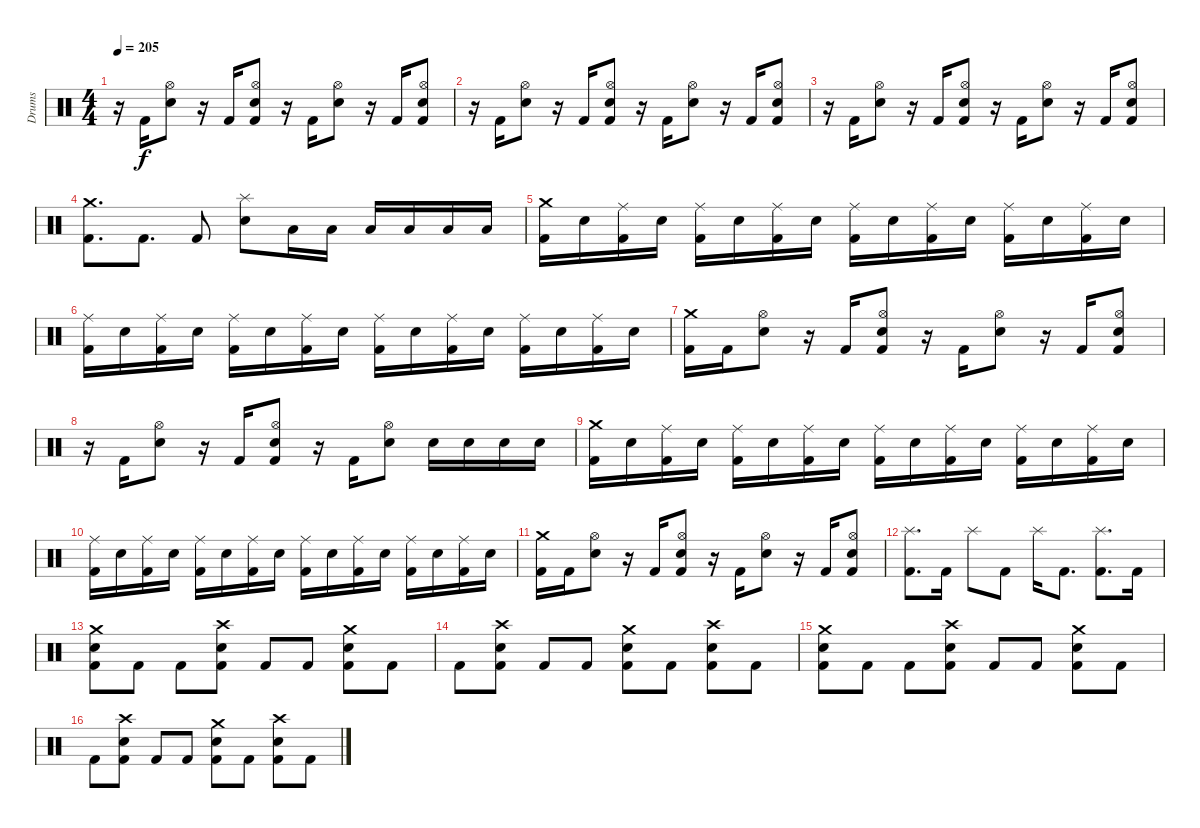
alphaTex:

\track ("Drums" "Drums") {instrument percussion}
\staff {score}
\articulation defaults
\ts (4 4)
\tempo 205
\clef neutral
\ks c
r.16{dy f} "Kick (hit) 2".16 ("Hi-Hat (open)" "Electric Snare (hit)").8 r.16 "Kick (hit) 2".16 ("Hi-Hat (open)" "Electric Snare (hit)" "Kick (hit) 2").8 r.16 "Kick (hit) 2".16 ("Hi-Hat (open)" "Electric Snare (hit)").8 r.16 "Kick (hit) 2".16 ("Hi-Hat (open)" "Electric Snare (hit)" "Kick (hit) 2").8 |
r.16 "Kick (hit) 2".16 ("Hi-Hat (open)" "Electric Snare (hit)").8 r.16 "Kick (hit) 2".16 ("Hi-Hat (open)" "Electric Snare (hit)" "Kick (hit) 2").8 r.16 "Kick (hit) 2".16 ("Hi-Hat (open)" "Electric Snare (hit)").8 r.16 "Kick (hit) 2".16 ("Hi-Hat (open)" "Electric Snare (hit)" "Kick (hit) 2").8 |
r.16 "Kick (hit) 2".16 ("Hi-Hat (open)" "Electric Snare (hit)").8 r.16 "Kick (hit) 2".16 ("Hi-Hat (open)" "Electric Snare (hit)" "Kick (hit) 2").8 r.16 "Kick (hit) 2".16 ("Hi-Hat (open)" "Electric Snare (hit)").8 r.16 "Kick (hit) 2".16 ("Hi-Hat (open)" "Electric Snare (hit)" "Kick (hit) 2").8 |
("Crash medium (hit)" "Kick (hit) 2").8{d} "Kick (hit) 2".8{d} "Kick (hit) 2".8 ("Splash (hit)" "Electric Snare (hit)").8 "Low Tom (hit)".16 "Low Tom (hit)".16 "Low Floor Tom (hit)".16 "Low Floor Tom (hit)".16 "Low Floor Tom (hit)".16 "Low Floor Tom (hit)".16 |
("Crash medium (hit)" "Kick (hit) 2").16 "Electric Snare (hit)".16 ("Ride (middle)" "Kick (hit) 2").16 "Electric Snare (hit)".16 ("Ride (middle)" "Kick (hit) 2").16 "Electric Snare (hit)".16 ("Ride (middle)" "Kick (hit) 2").16 "Electric Snare (hit)".16 ("Ride (middle)" "Kick (hit) 2").16 "Electric Snare (hit)".16 ("Ride (middle)" "Kick (hit) 2").16 "Electric Snare (hit)".16 ("Ride (middle)" "Kick (hit) 2").16 "Electric Snare (hit)".16 ("Ride (middle)" "Kick (hit) 2").16 "Electric Snare (hit)".16 |
("Ride (middle)" "Kick (hit) 2").16 "Electric Snare (hit)".16 ("Ride (middle)" "Kick (hit) 2").16 "Electric Snare (hit)".16 ("Ride (middle)" "Kick (hit) 2").16 "Electric Snare (hit)".16 ("Ride (middle)" "Kick (hit) 2").16 "Electric Snare (hit)".16 ("Ride (middle)" "Kick (hit) 2").16 "Electric Snare (hit)".16 ("Ride (middle)" "Kick (hit) 2").16 "Electric Snare (hit)".16 ("Ride (middle)" "Kick (hit) 2").16 "Electric Snare (hit)".16 ("Ride (middle)" "Kick (hit) 2").16 "Electric Snare (hit)".16 |
("Crash medium (hit)" "Kick (hit) 2").16 "Kick (hit) 2".16 ("Hi-Hat (open)" "Electric Snare (hit)").8 r.16 "Kick (hit) 2".16 ("Hi-Hat (open)" "Electric Snare (hit)" "Kick (hit) 2").8 r.16 "Kick (hit) 2".16 ("Hi-Hat (open)" "Electric Snare (hit)").8 r.16 "Kick (hit) 2".16 ("Hi-Hat (open)" "Electric Snare (hit)" "Kick (hit) 2").8 |
r.16 "Kick (hit) 2".16 ("Hi-Hat (open)" "Electric Snare (hit)").8 r.16 "Kick (hit) 2".16 ("Hi-Hat (open)" "Electric Snare (hit)" "Kick (hit) 2").8 r.16 "Kick (hit) 2".16 ("Hi-Hat (open)" "Electric Snare (hit)").8 "Electric Snare (hit)".16 "Electric Snare (hit)".16 "Electric Snare (hit)".16 "Electric Snare (hit)".16 |
("Crash medium (hit)" "Kick (hit) 2").16 "Electric Snare (hit)".16 ("Ride (middle)" "Kick (hit) 2").16 "Electric Snare (hit)".16 ("Ride (middle)" "Kick (hit) 2").16 "Electric Snare (hit)".16 ("Ride (middle)" "Kick (hit) 2").16 "Electric Snare (hit)".16 ("Ride (middle)" "Kick (hit) 2").16 "Electric Snare (hit)".16 ("Ride (middle)" "Kick (hit) 2").16 "Electric Snare (hit)".16 ("Ride (middle)" "Kick (hit) 2").16 "Electric Snare (hit)".16 ("Ride (middle)" "Kick (hit) 2").16 "Electric Snare (hit)".16 |
("Ride (middle)" "Kick (hit) 2").16 "Electric Snare (hit)".16 ("Ride (middle)" "Kick (hit) 2").16 "Electric Snare (hit)".16 ("Ride (middle)" "Kick (hit) 2").16 "Electric Snare (hit)".16 ("Ride (middle)" "Kick (hit) 2").16 "Electric Snare (hit)".16 ("Ride (middle)" "Kick (hit) 2").16 "Electric Snare (hit)".16 ("Ride (middle)" "Kick (hit) 2").16 "Electric Snare (hit)".16 ("Ride (middle)" "Kick (hit) 2").16 "Electric Snare (hit)".16 ("Ride (middle)" "Kick (hit) 2").16 "Electric Snare (hit)".16 |
("Crash medium (hit)" "Kick (hit) 2").16 "Kick (hit) 2".16 ("Hi-Hat (open)" "Electric Snare (hit)").8 r.16 "Kick (hit) 2".16 ("Hi-Hat (open)" "Electric Snare (hit)" "Kick (hit) 2").8 r.16 "Kick (hit) 2".16 ("Hi-Hat (open)" "Electric Snare (hit)").8 r.16 "Kick (hit) 2".16 ("Hi-Hat (open)" "Electric Snare (hit)" "Kick (hit) 2").8 |
("Splash (hit)" "Kick (hit) 2").8{d} "Kick (hit) 2".16 "Splash (hit)".8 "Kick (hit) 2".8 "Splash (hit)".16 "Kick (hit) 2".8{d} ("Splash (hit)" "Kick (hit) 2").8{d} "Kick (hit) 2".16 |
("Crash medium (hit)" "Electric Snare (hit)" "Kick (hit) 2").8 "Kick (hit) 2".8 "Kick (hit) 2".8 ("Crash high (hit)" "Electric Snare (hit)" "Kick (hit) 2").8 "Kick (hit) 2".8 "Kick (hit) 2".8 ("Crash medium (hit)" "Electric Snare (hit)" "Kick (hit) 2").8 "Kick (hit) 2".8 |
"Kick (hit) 2".8 ("Crash high (hit)" "Electric Snare (hit)" "Kick (hit) 2").8 "Kick (hit) 2".8 "Kick (hit) 2".8 ("Crash medium (hit)" "Electric Snare (hit)" "Kick (hit) 2").8 "Kick (hit) 2".8 ("Crash high (hit)" "Electric Snare (hit)" "Kick (hit) 2").8 "Kick (hit) 2".8 |
("Crash medium (hit)" "Electric Snare (hit)" "Kick (hit) 2").8 "Kick (hit) 2".8 "Kick (hit) 2".8 ("Crash high (hit)" "Electric Snare (hit)" "Kick (hit) 2").8 "Kick (hit) 2".8 "Kick (hit) 2".8 ("Crash medium (hit)" "Electric Snare (hit)" "Kick (hit) 2").8 "Kick (hit) 2".8 |
"Kick (hit) 2".8 ("Crash high (hit)" "Electric Snare (hit)" "Kick (hit) 2").8 "Kick (hit) 2".8 "Kick (hit) 2".8 ("Crash medium (hit)" "Electric Snare (hit)" "Kick (hit) 2").8 "Kick (hit) 2".8 ("Crash high (hit)" "Electric Snare (hit)" "Kick (hit) 2").8 "Kick (hit) 2".8
